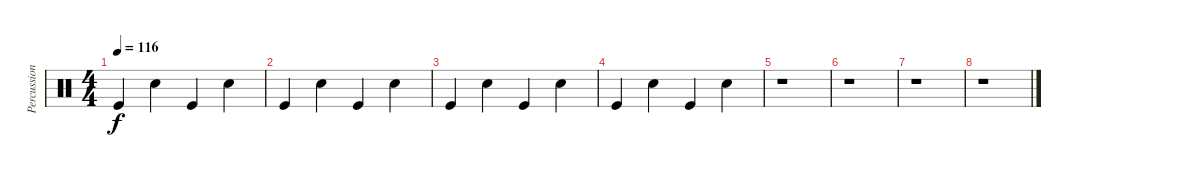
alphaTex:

\track ("Percussions" "Percussion") {instrument percussion}
\staff {score}
\articulation defaults
\ts (4 4)
\tempo 116
\clef neutral
\ks c "Kick (hit)".4{dy f} "Snare (hit) 2".4 "Kick (hit)".4 "Snare (hit) 2".4
|
"Kick (hit)".4 "Snare (hit) 2".4 "Kick (hit)".4 "Snare (hit) 2".4 |
"Kick (hit)".4 "Snare (hit) 2".4 "Kick (hit)".4 "Snare (hit) 2".4 |
"Kick (hit)".4 "Snare (hit) 2".4 "Kick (hit)".4 "Snare (hit) 2".4 |
r.1 |
r.1 |
r.1 |
r.1
